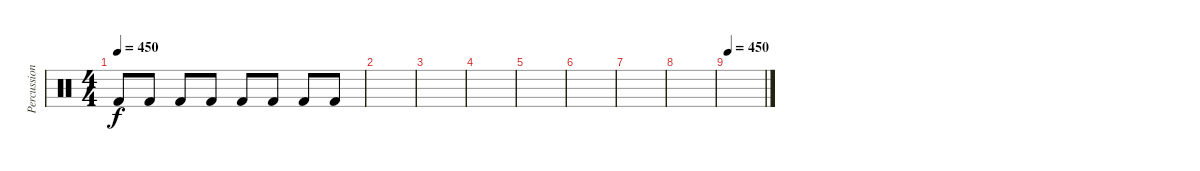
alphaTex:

\track ("Percussions3" "Percussion") {instrument percussion}
\staff {score}
\articulation defaults
\ts (4 4)
\tempo 450
\clef neutral
\ks c "Kick (hit) 2".8{dy f} "Kick (hit) 2".8 "Kick (hit) 2".8 "Kick (hit) 2".8 "Kick (hit) 2".8 "Kick (hit) 2".8 "Kick (hit) 2".8 "Kick (hit) 2".8
|
|
|
|
|
|
|
|
\tempo 450
